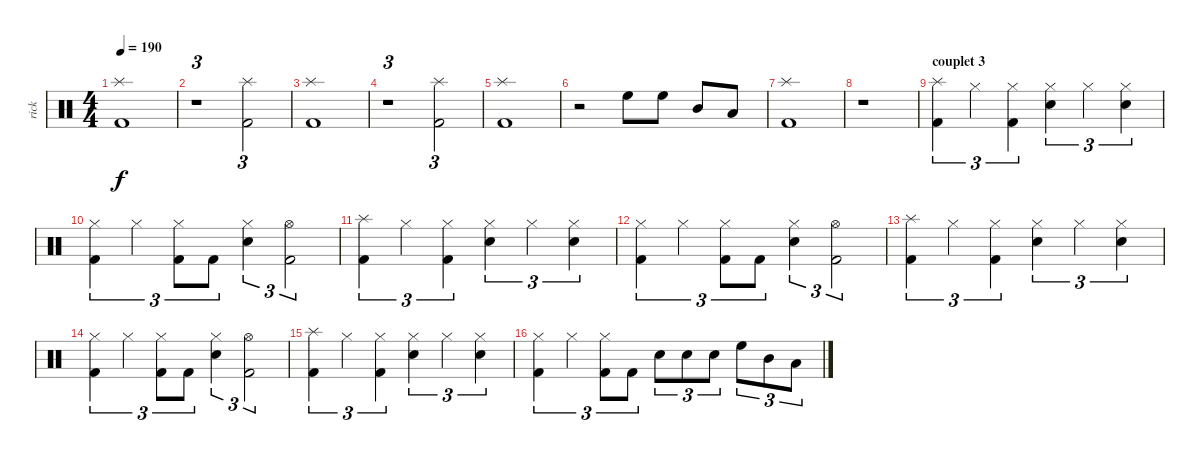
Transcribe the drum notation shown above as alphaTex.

\track ("rick" "rick") {instrument percussion}
\staff {score}
\articulation defaults
\ts (4 4)
\tempo 190
\clef neutral
\ks c
("Splash (hit)" "Kick (hit) 2").1{dy f} |
r.1{tu (3 2)} ("Splash (hit)" "Kick (hit) 2").2{tu (3 2)} |
("Splash (hit)" "Kick (hit) 2").1 |
r.1{tu (3 2)} ("Splash (hit)" "Kick (hit) 2").2{tu (3 2)} |
("Splash (hit)" "Kick (hit) 2").1 |
r.2 "High Floor Tom (hit)".8 "High Floor Tom (hit)".8 "Mid Tom (hit)".8 "Low Floor Tom (hit)".8 |
("Splash (hit)" "Kick (hit) 2").1 |
r.1 |
\section ("" "couplet 3")
("Splash (hit)" "Kick (hit) 2").4{tu (3 2)} "Hi-Hat (closed)".4{tu (3 2)} ("Hi-Hat (closed)" "Kick (hit) 2").4{tu (3 2)} ("Hi-Hat (closed)" "Snare (hit) 2").4{tu (3 2)} "Hi-Hat (closed)".4{tu (3 2)} ("Hi-Hat (closed)" "Snare (hit) 2").4{tu (3 2)} |
("Hi-Hat (closed)" "Kick (hit) 2").4{tu (3 2)} "Hi-Hat (closed)".4{tu (3 2)} ("Hi-Hat (closed)" "Kick (hit) 2").8{tu (3 2)} "Kick (hit) 2".8{tu (3 2)} ("Hi-Hat (closed)" "Snare (hit) 2").4{tu (3 2)} ("Hi-Hat (open)" "Kick (hit) 2").2{tu (3 2)} |
("Splash (hit)" "Kick (hit) 2").4{tu (3 2)} "Hi-Hat (closed)".4{tu (3 2)} ("Hi-Hat (closed)" "Kick (hit) 2").4{tu (3 2)} ("Hi-Hat (closed)" "Snare (hit) 2").4{tu (3 2)} "Hi-Hat (closed)".4{tu (3 2)} ("Hi-Hat (closed)" "Snare (hit) 2").4{tu (3 2)} |
("Hi-Hat (closed)" "Kick (hit) 2").4{tu (3 2)} "Hi-Hat (closed)".4{tu (3 2)} ("Hi-Hat (closed)" "Kick (hit) 2").8{tu (3 2)} "Kick (hit) 2".8{tu (3 2)} ("Hi-Hat (closed)" "Snare (hit) 2").4{tu (3 2)} ("Hi-Hat (open)" "Kick (hit) 2").2{tu (3 2)} |
("Splash (hit)" "Kick (hit) 2").4{tu (3 2)} "Hi-Hat (closed)".4{tu (3 2)} ("Hi-Hat (closed)" "Kick (hit) 2").4{tu (3 2)} ("Hi-Hat (closed)" "Snare (hit) 2").4{tu (3 2)} "Hi-Hat (closed)".4{tu (3 2)} ("Hi-Hat (closed)" "Snare (hit) 2").4{tu (3 2)} |
("Hi-Hat (closed)" "Kick (hit) 2").4{tu (3 2)} "Hi-Hat (closed)".4{tu (3 2)} ("Hi-Hat (closed)" "Kick (hit) 2").8{tu (3 2)} "Kick (hit) 2".8{tu (3 2)} ("Hi-Hat (closed)" "Snare (hit) 2").4{tu (3 2)} ("Hi-Hat (open)" "Kick (hit) 2").2{tu (3 2)} |
("Splash (hit)" "Kick (hit) 2").4{tu (3 2)} "Hi-Hat (closed)".4{tu (3 2)} ("Hi-Hat (closed)" "Kick (hit) 2").4{tu (3 2)} ("Hi-Hat (closed)" "Snare (hit) 2").4{tu (3 2)} "Hi-Hat (closed)".4{tu (3 2)} ("Hi-Hat (closed)" "Snare (hit) 2").4{tu (3 2)} |
("Hi-Hat (closed)" "Kick (hit) 2").4{tu (3 2)} "Hi-Hat (closed)".4{tu (3 2)} ("Hi-Hat (closed)" "Kick (hit) 2").8{tu (3 2)} "Kick (hit) 2".8{tu (3 2)} "Snare (hit) 2".8{tu (3 2)} "Snare (hit) 2".8{tu (3 2)} "Snare (hit) 2".8{tu (3 2)} "High Floor Tom (hit)".8{tu (3 2)} "Mid Tom (hit)".8{tu (3 2)} "Low Floor Tom (hit)".8{tu (3 2)}
